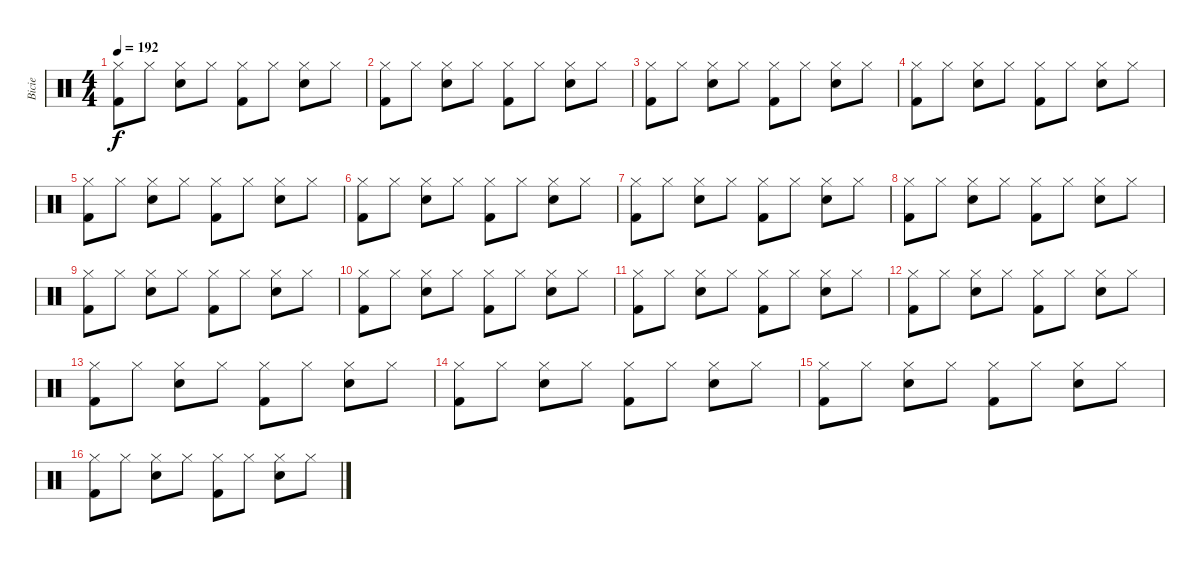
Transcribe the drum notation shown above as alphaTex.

\track ("Bicie" "Bicie") {instrument percussion}
\staff {score}
\articulation defaults
\ts (4 4)
\tempo 192
\clef neutral
\ks c
("Hi-Hat (closed)" "Kick (hit) 2").8{dy f} "Hi-Hat (closed)".8 ("Hi-Hat (closed)" "Electric Snare (hit)").8 "Hi-Hat (closed)".8 ("Hi-Hat (closed)" "Kick (hit) 2").8 "Hi-Hat (closed)".8 ("Hi-Hat (closed)" "Electric Snare (hit)").8 "Hi-Hat (closed)".8 |
("Hi-Hat (closed)" "Kick (hit) 2").8 "Hi-Hat (closed)".8 ("Hi-Hat (closed)" "Electric Snare (hit)").8 "Hi-Hat (closed)".8 ("Hi-Hat (closed)" "Kick (hit) 2").8 "Hi-Hat (closed)".8 ("Hi-Hat (closed)" "Electric Snare (hit)").8 "Hi-Hat (closed)".8 |
("Hi-Hat (closed)" "Kick (hit) 2").8 "Hi-Hat (closed)".8 ("Hi-Hat (closed)" "Electric Snare (hit)").8 "Hi-Hat (closed)".8 ("Hi-Hat (closed)" "Kick (hit) 2").8 "Hi-Hat (closed)".8 ("Hi-Hat (closed)" "Electric Snare (hit)").8 "Hi-Hat (closed)".8 |
("Hi-Hat (closed)" "Kick (hit) 2").8 "Hi-Hat (closed)".8 ("Hi-Hat (closed)" "Electric Snare (hit)").8 "Hi-Hat (closed)".8 ("Hi-Hat (closed)" "Kick (hit) 2").8 "Hi-Hat (closed)".8 ("Hi-Hat (closed)" "Electric Snare (hit)").8 "Hi-Hat (closed)".8 |
("Hi-Hat (closed)" "Kick (hit) 2").8 "Hi-Hat (closed)".8 ("Hi-Hat (closed)" "Electric Snare (hit)").8 "Hi-Hat (closed)".8 ("Hi-Hat (closed)" "Kick (hit) 2").8 "Hi-Hat (closed)".8 ("Hi-Hat (closed)" "Electric Snare (hit)").8 "Hi-Hat (closed)".8 |
("Hi-Hat (closed)" "Kick (hit) 2").8 "Hi-Hat (closed)".8 ("Hi-Hat (closed)" "Electric Snare (hit)").8 "Hi-Hat (closed)".8 ("Hi-Hat (closed)" "Kick (hit) 2").8 "Hi-Hat (closed)".8 ("Hi-Hat (closed)" "Electric Snare (hit)").8 "Hi-Hat (closed)".8 |
("Hi-Hat (closed)" "Kick (hit) 2").8 "Hi-Hat (closed)".8 ("Hi-Hat (closed)" "Electric Snare (hit)").8 "Hi-Hat (closed)".8 ("Hi-Hat (closed)" "Kick (hit) 2").8 "Hi-Hat (closed)".8 ("Hi-Hat (closed)" "Electric Snare (hit)").8 "Hi-Hat (closed)".8 |
("Hi-Hat (closed)" "Kick (hit) 2").8 "Hi-Hat (closed)".8 ("Hi-Hat (closed)" "Electric Snare (hit)").8 "Hi-Hat (closed)".8 ("Hi-Hat (closed)" "Kick (hit) 2").8 "Hi-Hat (closed)".8 ("Hi-Hat (closed)" "Electric Snare (hit)").8 "Hi-Hat (closed)".8 |
("Hi-Hat (closed)" "Kick (hit) 2").8 "Hi-Hat (closed)".8 ("Hi-Hat (closed)" "Electric Snare (hit)").8 "Hi-Hat (closed)".8 ("Hi-Hat (closed)" "Kick (hit) 2").8 "Hi-Hat (closed)".8 ("Hi-Hat (closed)" "Electric Snare (hit)").8 "Hi-Hat (closed)".8 |
("Hi-Hat (closed)" "Kick (hit) 2").8 "Hi-Hat (closed)".8 ("Hi-Hat (closed)" "Electric Snare (hit)").8 "Hi-Hat (closed)".8 ("Hi-Hat (closed)" "Kick (hit) 2").8 "Hi-Hat (closed)".8 ("Hi-Hat (closed)" "Electric Snare (hit)").8 "Hi-Hat (closed)".8 |
("Hi-Hat (closed)" "Kick (hit) 2").8 "Hi-Hat (closed)".8 ("Hi-Hat (closed)" "Electric Snare (hit)").8 "Hi-Hat (closed)".8 ("Hi-Hat (closed)" "Kick (hit) 2").8 "Hi-Hat (closed)".8 ("Hi-Hat (closed)" "Electric Snare (hit)").8 "Hi-Hat (closed)".8 |
("Hi-Hat (closed)" "Kick (hit) 2").8 "Hi-Hat (closed)".8 ("Hi-Hat (closed)" "Electric Snare (hit)").8 "Hi-Hat (closed)".8 ("Hi-Hat (closed)" "Kick (hit) 2").8 "Hi-Hat (closed)".8 ("Hi-Hat (closed)" "Electric Snare (hit)").8 "Hi-Hat (closed)".8 |
("Hi-Hat (closed)" "Kick (hit) 2").8 "Hi-Hat (closed)".8 ("Hi-Hat (closed)" "Electric Snare (hit)").8 "Hi-Hat (closed)".8 ("Hi-Hat (closed)" "Kick (hit) 2").8 "Hi-Hat (closed)".8 ("Hi-Hat (closed)" "Electric Snare (hit)").8 "Hi-Hat (closed)".8 |
("Hi-Hat (closed)" "Kick (hit) 2").8 "Hi-Hat (closed)".8 ("Hi-Hat (closed)" "Electric Snare (hit)").8 "Hi-Hat (closed)".8 ("Hi-Hat (closed)" "Kick (hit) 2").8 "Hi-Hat (closed)".8 ("Hi-Hat (closed)" "Electric Snare (hit)").8 "Hi-Hat (closed)".8 |
("Hi-Hat (closed)" "Kick (hit) 2").8 "Hi-Hat (closed)".8 ("Hi-Hat (closed)" "Electric Snare (hit)").8 "Hi-Hat (closed)".8 ("Hi-Hat (closed)" "Kick (hit) 2").8 "Hi-Hat (closed)".8 ("Hi-Hat (closed)" "Electric Snare (hit)").8 "Hi-Hat (closed)".8 |
("Hi-Hat (closed)" "Kick (hit) 2").8 "Hi-Hat (closed)".8 ("Hi-Hat (closed)" "Electric Snare (hit)").8 "Hi-Hat (closed)".8 ("Hi-Hat (closed)" "Kick (hit) 2").8 "Hi-Hat (closed)".8 ("Hi-Hat (closed)" "Electric Snare (hit)").8 "Hi-Hat (closed)".8
